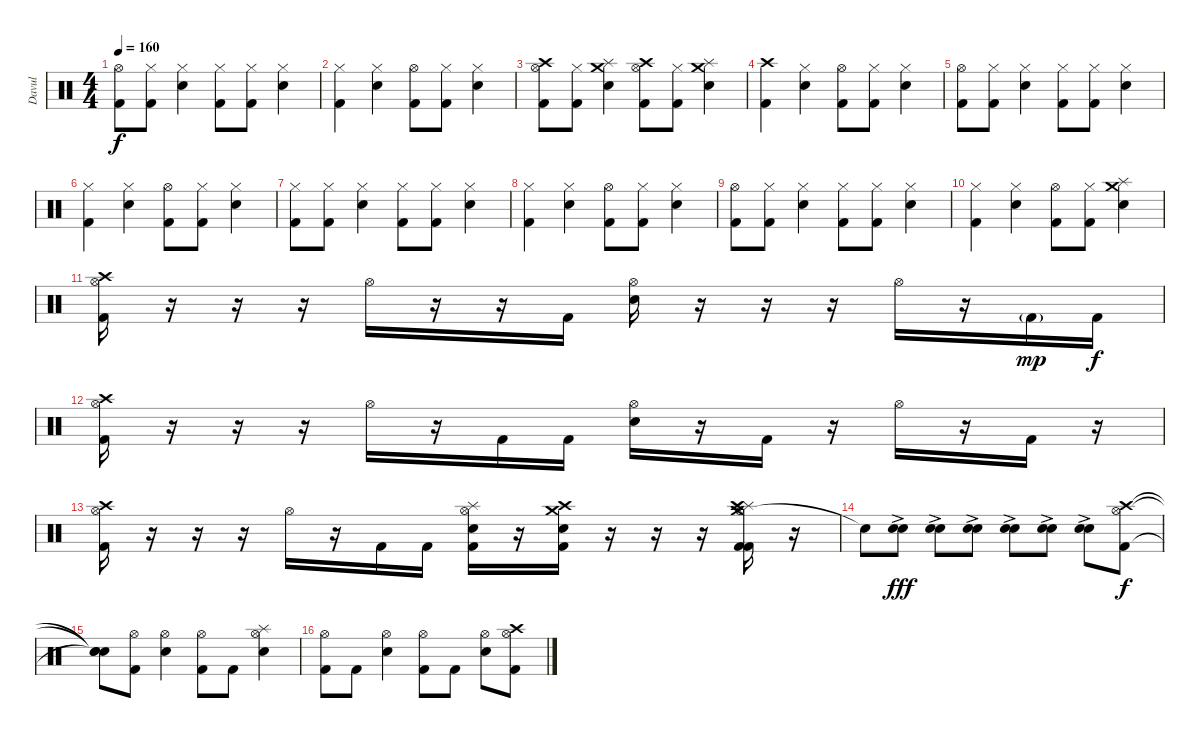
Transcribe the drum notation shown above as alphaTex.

\track ("Davul" "Davul") {instrument percussion}
\staff {score}
\articulation defaults
\ts (4 4)
\tempo 160
\clef neutral
\ks c
("Hi-Hat (open)" "Kick (hit) 2").8{dy f} ("Hi-Hat (closed)" "Kick (hit) 2").8 ("Hi-Hat (closed)" "Electric Snare (hit)").4 ("Hi-Hat (closed)" "Kick (hit) 2").8 ("Hi-Hat (closed)" "Kick (hit) 2").8 ("Hi-Hat (closed)" "Electric Snare (hit)").4 |
("Hi-Hat (closed)" "Kick (hit) 2").4 ("Hi-Hat (closed)" "Electric Snare (hit)").4 ("Hi-Hat (open)" "Kick (hit) 2").8 ("Hi-Hat (closed)" "Kick (hit) 2").8 ("Hi-Hat (closed)" "Electric Snare (hit)").4 |
("Crash high (hit)" "Hi-Hat (open)" "Kick (hit) 2").8 ("Hi-Hat (closed)" "Kick (hit) 2").8 ("Splash (hit)" "Crash medium (hit)" "Electric Snare (hit)").4 ("Crash high (hit)" "Hi-Hat (open)" "Kick (hit) 2").8 ("Hi-Hat (closed)" "Kick (hit) 2").8 ("Crash medium (hit)" "Splash (hit)" "Electric Snare (hit)").4 |
("Crash high (hit)" "Kick (hit) 2").4 ("Hi-Hat (closed)" "Electric Snare (hit)").4 ("Hi-Hat (open)" "Kick (hit) 2").8 ("Hi-Hat (closed)" "Kick (hit) 2").8 ("Hi-Hat (closed)" "Electric Snare (hit)").4 |
("Hi-Hat (open)" "Kick (hit) 2").8 ("Hi-Hat (closed)" "Kick (hit) 2").8 ("Hi-Hat (closed)" "Electric Snare (hit)").4 ("Hi-Hat (closed)" "Kick (hit) 2").8 ("Hi-Hat (closed)" "Kick (hit) 2").8 ("Hi-Hat (closed)" "Electric Snare (hit)").4 |
("Hi-Hat (closed)" "Kick (hit) 2").4 ("Hi-Hat (closed)" "Electric Snare (hit)").4 ("Hi-Hat (open)" "Kick (hit) 2").8 ("Hi-Hat (closed)" "Kick (hit) 2").8 ("Hi-Hat (closed)" "Electric Snare (hit)").4 |
("Hi-Hat (closed)" "Kick (hit) 2").8 ("Hi-Hat (closed)" "Kick (hit) 2").8 ("Hi-Hat (closed)" "Electric Snare (hit)").4 ("Hi-Hat (closed)" "Kick (hit) 2").8 ("Hi-Hat (closed)" "Kick (hit) 2").8 ("Hi-Hat (closed)" "Electric Snare (hit)").4 |
("Hi-Hat (closed)" "Kick (hit) 2").4 ("Hi-Hat (closed)" "Electric Snare (hit)").4 ("Hi-Hat (open)" "Kick (hit) 2").8 ("Hi-Hat (closed)" "Kick (hit) 2").8 ("Hi-Hat (closed)" "Electric Snare (hit)").4 |
("Hi-Hat (open)" "Kick (hit) 2").8 ("Hi-Hat (closed)" "Kick (hit) 2").8 ("Hi-Hat (closed)" "Electric Snare (hit)").4 ("Hi-Hat (closed)" "Kick (hit) 2").8 ("Hi-Hat (closed)" "Kick (hit) 2").8 ("Hi-Hat (closed)" "Electric Snare (hit)").4 |
("Hi-Hat (closed)" "Kick (hit) 2").4 ("Hi-Hat (closed)" "Electric Snare (hit)").4 ("Hi-Hat (open)" "Kick (hit) 2").8 ("Hi-Hat (closed)" "Kick (hit) 2").8 ("Crash medium (hit)" "Splash (hit)" "Electric Snare (hit)").4 |
("Hi-Hat (open)" "Crash high (hit)" "Kick (hit) 2").16 r.16 r.16 r.16 "Hi-Hat (open)".16 r.16 r.16 "Kick (hit) 2".16 ("Hi-Hat (open)" "Electric Snare (hit)").16 r.16 r.16 r.16 "Hi-Hat (open)".16 r.16 "Kick (hit) 2"{g}.16{dy mp} "Kick (hit) 2".16{dy f} |
("Hi-Hat (open)" "Crash high (hit)" "Kick (hit) 2").16 r.16 r.16 r.16 "Hi-Hat (open)".16 r.16 "Kick (hit) 2".16 "Kick (hit) 2".16 ("Hi-Hat (open)" "Electric Snare (hit)").16 r.16 "Kick (hit) 2".16 r.16 "Hi-Hat (open)".16 r.16 "Kick (hit) 2".16 r.16 |
("Hi-Hat (open)" "Crash high (hit)" "Kick (hit) 2").16 r.16 r.16 r.16 "Hi-Hat (open)".16 r.16 "Kick (hit) 2".16 "Kick (hit) 2".16 ("Hi-Hat (open)" "Splash (hit)" "Kick (hit) 2" "Electric Snare (hit)").16 r.16 ("Crash high (hit)" "Crash medium (hit)" "Kick (hit) 2" "Electric Snare (hit)").16 r.16 r.16 r.16 ("Crash medium (hit)" "Splash (hit)" "Hi-Hat (open)" "Crash high (hit)" "Kick (hit) 2" "Kick (hit) 2").16 r.16 |
"Electric Snare (hit)"{t}.8 ("Electric Snare (hit)"{ac} "Electric Snare (hit)"{ac}).8{dy fff} ("Electric Snare (hit)"{ac} "Electric Snare (hit)"{ac}).8 ("Electric Snare (hit)"{ac} "Electric Snare (hit)"{ac}).8 ("Electric Snare (hit)"{ac} "Electric Snare (hit)"{ac}).8 ("Electric Snare (hit)"{ac} "Electric Snare (hit)"{ac}).8 ("Electric Snare (hit)"{ac} "Electric Snare (hit)"{ac}).8 ("Hi-Hat (open)" "Crash high (hit)" "Kick (hit) 2").8{dy f} |
("Snare (hit)"{t} "Snare (hit)"{t} "Snare (hit)"{t}).8 ("Hi-Hat (open)" "Kick (hit) 2").8 ("Hi-Hat (open)" "Electric Snare (hit)").4 ("Hi-Hat (open)" "Kick (hit) 2").8 "Kick (hit) 2".8 ("Splash (hit)" "Hi-Hat (open)" "Electric Snare (hit)").4 |
("Hi-Hat (open)" "Kick (hit) 2").8 "Kick (hit) 2".8 ("Hi-Hat (open)" "Electric Snare (hit)").4 ("Hi-Hat (open)" "Kick (hit) 2").8 "Kick (hit) 2".8 ("Hi-Hat (open)" "Electric Snare (hit)").8 ("Crash high (hit)" "Hi-Hat (open)" "Kick (hit) 2").8
